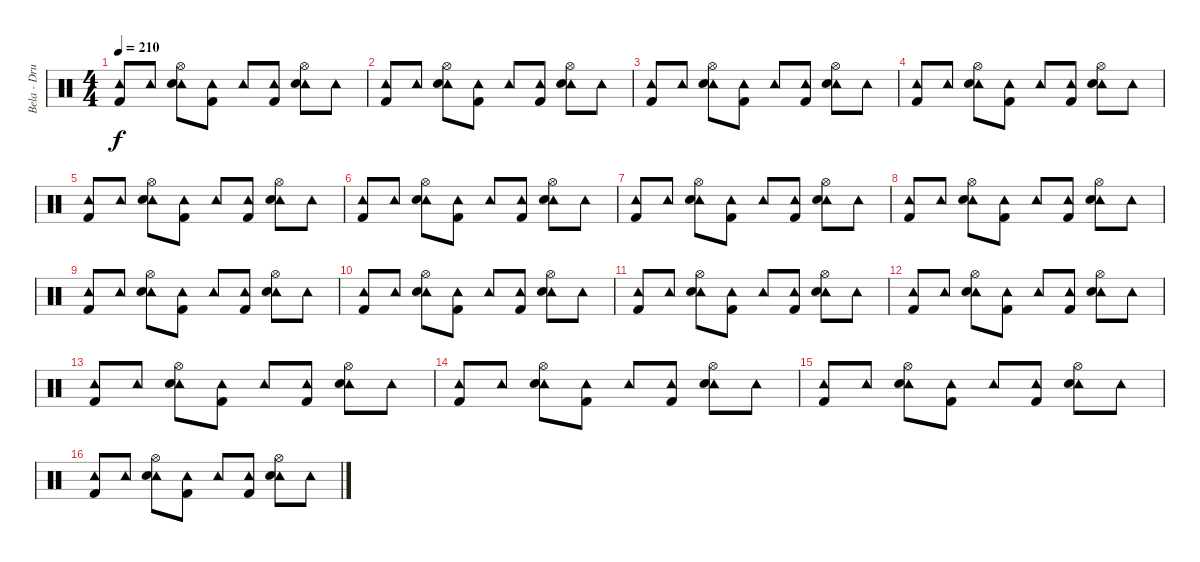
\track ("Bela - Drums" "Bela - Dru") {instrument percussion}
\staff {score}
\articulation defaults
\ts (4 4)
\tempo 210
\clef neutral
\ks c
("Tambourine (hit)" "Kick (hit) 2").8{dy f} "Tambourine (hit)".8 ("Tambourine (hit)" "Electric Snare (hit)" "Hi-Hat (open)").8 ("Tambourine (hit)" "Kick (hit) 2").8 "Tambourine (hit)".8 ("Tambourine (hit)" "Kick (hit) 2").8 ("Tambourine (hit)" "Electric Snare (hit)" "Hi-Hat (open)").8 "Tambourine (hit)".8 |
("Tambourine (hit)" "Kick (hit) 2").8 "Tambourine (hit)".8 ("Tambourine (hit)" "Electric Snare (hit)" "Hi-Hat (open)").8 ("Tambourine (hit)" "Kick (hit) 2").8 "Tambourine (hit)".8 ("Tambourine (hit)" "Kick (hit) 2").8 ("Tambourine (hit)" "Electric Snare (hit)" "Hi-Hat (open)").8 "Tambourine (hit)".8 |
("Tambourine (hit)" "Kick (hit) 2").8 "Tambourine (hit)".8 ("Tambourine (hit)" "Electric Snare (hit)" "Hi-Hat (open)").8 ("Tambourine (hit)" "Kick (hit) 2").8 "Tambourine (hit)".8 ("Tambourine (hit)" "Kick (hit) 2").8 ("Tambourine (hit)" "Electric Snare (hit)" "Hi-Hat (open)").8 "Tambourine (hit)".8 |
("Tambourine (hit)" "Kick (hit) 2").8 "Tambourine (hit)".8 ("Tambourine (hit)" "Electric Snare (hit)" "Hi-Hat (open)").8 ("Tambourine (hit)" "Kick (hit) 2").8 "Tambourine (hit)".8 ("Tambourine (hit)" "Kick (hit) 2").8 ("Tambourine (hit)" "Electric Snare (hit)" "Hi-Hat (open)").8 "Tambourine (hit)".8 |
("Tambourine (hit)" "Kick (hit) 2").8 "Tambourine (hit)".8 ("Tambourine (hit)" "Electric Snare (hit)" "Hi-Hat (open)").8 ("Tambourine (hit)" "Kick (hit) 2").8 "Tambourine (hit)".8 ("Tambourine (hit)" "Kick (hit) 2").8 ("Tambourine (hit)" "Electric Snare (hit)" "Hi-Hat (open)").8 "Tambourine (hit)".8 |
("Tambourine (hit)" "Kick (hit) 2").8 "Tambourine (hit)".8 ("Tambourine (hit)" "Electric Snare (hit)" "Hi-Hat (open)").8 ("Tambourine (hit)" "Kick (hit) 2").8 "Tambourine (hit)".8 ("Tambourine (hit)" "Kick (hit) 2").8 ("Tambourine (hit)" "Electric Snare (hit)" "Hi-Hat (open)").8 "Tambourine (hit)".8 |
("Tambourine (hit)" "Kick (hit) 2").8 "Tambourine (hit)".8 ("Tambourine (hit)" "Electric Snare (hit)" "Hi-Hat (open)").8 ("Tambourine (hit)" "Kick (hit) 2").8 "Tambourine (hit)".8 ("Tambourine (hit)" "Kick (hit) 2").8 ("Tambourine (hit)" "Electric Snare (hit)" "Hi-Hat (open)").8 "Tambourine (hit)".8 |
("Tambourine (hit)" "Kick (hit) 2").8 "Tambourine (hit)".8 ("Tambourine (hit)" "Electric Snare (hit)" "Hi-Hat (open)").8 ("Tambourine (hit)" "Kick (hit) 2").8 "Tambourine (hit)".8 ("Tambourine (hit)" "Kick (hit) 2").8 ("Tambourine (hit)" "Electric Snare (hit)" "Hi-Hat (open)").8 "Tambourine (hit)".8 |
("Tambourine (hit)" "Kick (hit) 2").8 "Tambourine (hit)".8 ("Tambourine (hit)" "Electric Snare (hit)" "Hi-Hat (open)").8 ("Tambourine (hit)" "Kick (hit) 2").8 "Tambourine (hit)".8 ("Tambourine (hit)" "Kick (hit) 2").8 ("Tambourine (hit)" "Electric Snare (hit)" "Hi-Hat (open)").8 "Tambourine (hit)".8 |
("Tambourine (hit)" "Kick (hit) 2").8 "Tambourine (hit)".8 ("Tambourine (hit)" "Electric Snare (hit)" "Hi-Hat (open)").8 ("Tambourine (hit)" "Kick (hit) 2").8 "Tambourine (hit)".8 ("Tambourine (hit)" "Kick (hit) 2").8 ("Tambourine (hit)" "Electric Snare (hit)" "Hi-Hat (open)").8 "Tambourine (hit)".8 |
("Tambourine (hit)" "Kick (hit) 2").8 "Tambourine (hit)".8 ("Tambourine (hit)" "Electric Snare (hit)" "Hi-Hat (open)").8 ("Tambourine (hit)" "Kick (hit) 2").8 "Tambourine (hit)".8 ("Tambourine (hit)" "Kick (hit) 2").8 ("Tambourine (hit)" "Electric Snare (hit)" "Hi-Hat (open)").8 "Tambourine (hit)".8 |
("Tambourine (hit)" "Kick (hit) 2").8 "Tambourine (hit)".8 ("Tambourine (hit)" "Electric Snare (hit)" "Hi-Hat (open)").8 ("Tambourine (hit)" "Kick (hit) 2").8 "Tambourine (hit)".8 ("Tambourine (hit)" "Kick (hit) 2").8 ("Tambourine (hit)" "Electric Snare (hit)" "Hi-Hat (open)").8 "Tambourine (hit)".8 |
("Tambourine (hit)" "Kick (hit) 2").8 "Tambourine (hit)".8 ("Tambourine (hit)" "Electric Snare (hit)" "Hi-Hat (open)").8 ("Tambourine (hit)" "Kick (hit) 2").8 "Tambourine (hit)".8 ("Tambourine (hit)" "Kick (hit) 2").8 ("Tambourine (hit)" "Electric Snare (hit)" "Hi-Hat (open)").8 "Tambourine (hit)".8 |
("Tambourine (hit)" "Kick (hit) 2").8 "Tambourine (hit)".8 ("Tambourine (hit)" "Electric Snare (hit)" "Hi-Hat (open)").8 ("Tambourine (hit)" "Kick (hit) 2").8 "Tambourine (hit)".8 ("Tambourine (hit)" "Kick (hit) 2").8 ("Tambourine (hit)" "Electric Snare (hit)" "Hi-Hat (open)").8 "Tambourine (hit)".8 |
("Tambourine (hit)" "Kick (hit) 2").8 "Tambourine (hit)".8 ("Tambourine (hit)" "Electric Snare (hit)" "Hi-Hat (open)").8 ("Tambourine (hit)" "Kick (hit) 2").8 "Tambourine (hit)".8 ("Tambourine (hit)" "Kick (hit) 2").8 ("Tambourine (hit)" "Electric Snare (hit)" "Hi-Hat (open)").8 "Tambourine (hit)".8 |
("Tambourine (hit)" "Kick (hit) 2").8 "Tambourine (hit)".8 ("Tambourine (hit)" "Electric Snare (hit)" "Hi-Hat (open)").8 ("Tambourine (hit)" "Kick (hit) 2").8 "Tambourine (hit)".8 ("Tambourine (hit)" "Kick (hit) 2").8 ("Tambourine (hit)" "Electric Snare (hit)" "Hi-Hat (open)").8 "Tambourine (hit)".8
